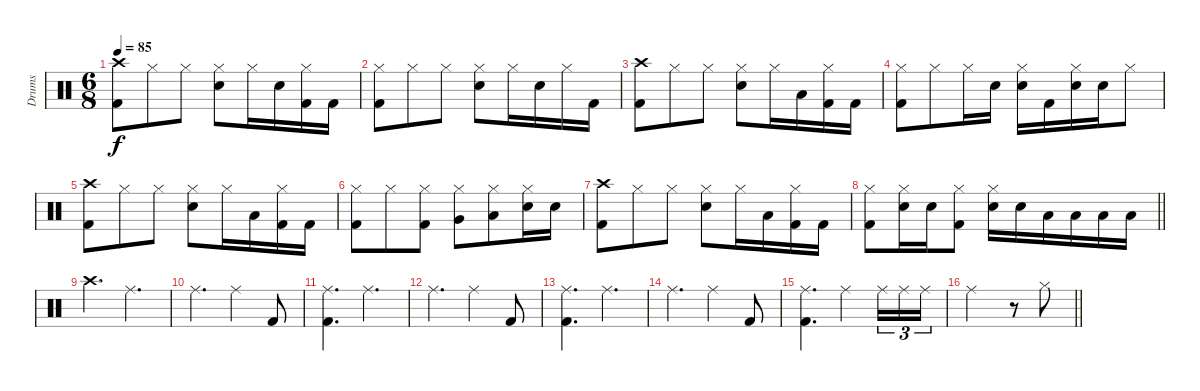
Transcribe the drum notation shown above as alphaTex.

\track ("Drums" "Drums") {instrument percussion}
\staff {score}
\articulation defaults
\ts (6 8)
\tempo 85
\clef neutral
\ks c
("Crash high (hit)" "Kick (hit) 2").8{dy f} "Hi-Hat (closed)".8 "Hi-Hat (closed)".8 ("Hi-Hat (closed)" "Snare (hit) 2").8 "Hi-Hat (closed)".16 "Snare (hit) 2".16 ("Hi-Hat (closed)" "Kick (hit) 2").16 "Kick (hit) 2".16 |
("Hi-Hat (closed)" "Kick (hit) 2").8 "Hi-Hat (closed)".8 "Hi-Hat (closed)".8 ("Hi-Hat (closed)" "Snare (hit) 2").8 "Hi-Hat (closed)".16 "Snare (hit) 2".16 "Hi-Hat (closed)".16 "Kick (hit) 2".16 |
("Crash high (hit)" "Kick (hit) 2").8 "Hi-Hat (closed)".8 "Hi-Hat (closed)".8 ("Hi-Hat (closed)" "Snare (hit) 2").8 "Hi-Hat (closed)".16 "Low Floor Tom (hit)".16 ("Hi-Hat (closed)" "Kick (hit) 2").16 "Kick (hit) 2".16 |
("Hi-Hat (closed)" "Kick (hit) 2").8 "Hi-Hat (closed)".8 "Hi-Hat (closed)".16 "Snare (hit) 2".16 ("Hi-Hat (closed)" "Snare (hit) 2").16 "Kick (hit) 2".16 ("Hi-Hat (closed)" "Snare (hit) 2").16 "Snare (hit) 2".16 "Hi-Hat (closed)".8 |
("Crash high (hit)" "Kick (hit) 2").8 "Hi-Hat (closed)".8 "Hi-Hat (closed)".8 ("Hi-Hat (closed)" "Snare (hit) 2").8 "Hi-Hat (closed)".16 "Low Floor Tom (hit)".16 ("Hi-Hat (closed)" "Kick (hit) 2").16 "Kick (hit) 2".16 |
("Hi-Hat (closed)" "Kick (hit) 2").8 "Hi-Hat (closed)".8 ("Hi-Hat (closed)" "Kick (hit) 2").8 ("Hi-Hat (closed)" "Very Low Tom (hit)").8 ("Hi-Hat (closed)" "Low Floor Tom (hit)").8 ("Hi-Hat (closed)" "Snare (hit) 2").16 "Snare (hit) 2".16 |
("Crash high (hit)" "Kick (hit) 2").8 "Hi-Hat (closed)".8 "Hi-Hat (closed)".8 ("Hi-Hat (closed)" "Snare (hit) 2").8 "Hi-Hat (closed)".16 "Low Floor Tom (hit)".16 ("Hi-Hat (closed)" "Kick (hit) 2").16 "Kick (hit) 2".16 |
\barLineRight lightlight
("Hi-Hat (closed)" "Kick (hit) 2").8 ("Hi-Hat (closed)" "Snare (hit) 2").16 "Snare (hit) 2".16 ("Hi-Hat (closed)" "Kick (hit) 2").8 ("Hi-Hat (closed)" "Snare (hit) 2").16 "Snare (hit) 2".16 "Low Floor Tom (hit)".16 "Low Floor Tom (hit)".16 "Low Floor Tom (hit)".16 "Low Floor Tom (hit)".16 |
"Crash high (hit)".4{d} "Ride (middle)".4{d} |
"Ride (middle)".4{d} "Ride (middle)".4 "Kick (hit) 2".8 |
("Ride (middle)" "Kick (hit) 2").4{d} "Ride (middle)".4{d} |
"Ride (middle)".4{d} "Ride (middle)".4 "Kick (hit) 2".8 |
("Ride (middle)" "Kick (hit) 2").4{d} "Ride (middle)".4{d} |
"Ride (middle)".4{d} "Ride (middle)".4 "Kick (hit) 2".8 |
("Ride (middle)" "Kick (hit) 2").4{d} "Ride (middle)".4 "Ride (middle)".16{tu (3 2)} "Ride (middle)".16{tu (3 2)} "Ride (middle)".16{tu (3 2)} |
\barLineRight lightlight "Ride (middle)".2
r.8 "Hi-Hat (closed)".8
